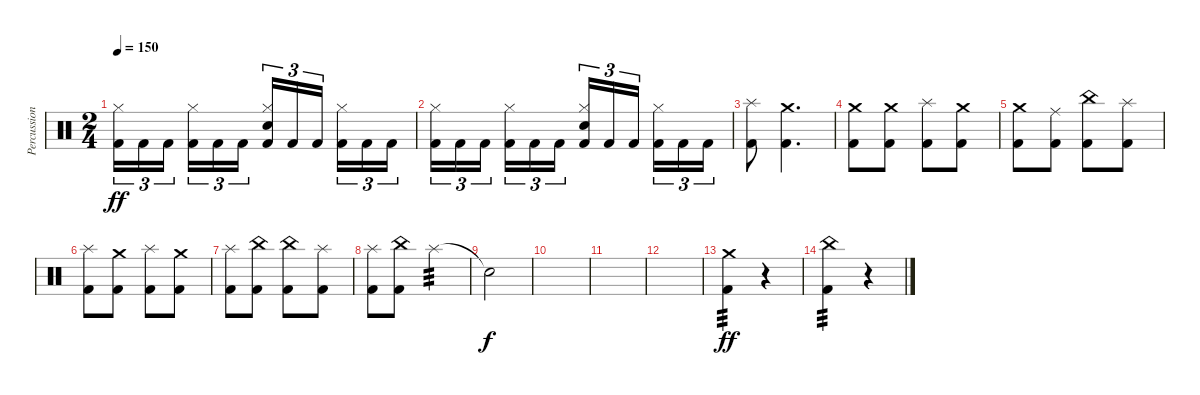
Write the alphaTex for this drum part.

\track ("Percussion" "Percussion") {instrument percussion}
\staff {score}
\articulation defaults
\ts (2 4)
\tempo 150
\clef neutral
\ks c
("Kick (hit) 2" "Hi-Hat (closed)").16{tu (3 2) dy ff} "Kick (hit) 2".16{tu (3 2)} "Kick (hit) 2".16{tu (3 2) beam splitsecondary} ("Kick (hit) 2" "Hi-Hat (closed)").16{tu (3 2)} "Kick (hit) 2".16{tu (3 2)} "Kick (hit) 2".16{tu (3 2)} ("Kick (hit) 2" "Snare (hit) 2" "Hi-Hat (closed)").16{tu (3 2)} "Kick (hit) 2".16{tu (3 2)} "Kick (hit) 2".16{tu (3 2) beam splitsecondary} ("Kick (hit) 2" "Hi-Hat (closed)").16{tu (3 2)} "Kick (hit) 2".16{tu (3 2)} "Kick (hit) 2".16{tu (3 2)} |
("Kick (hit) 2" "Hi-Hat (closed)").16{tu (3 2)} "Kick (hit) 2".16{tu (3 2)} "Kick (hit) 2".16{tu (3 2) beam splitsecondary} ("Kick (hit) 2" "Hi-Hat (closed)").16{tu (3 2)} "Kick (hit) 2".16{tu (3 2)} "Kick (hit) 2".16{tu (3 2)} ("Kick (hit) 2" "Snare (hit) 2" "Hi-Hat (closed)").16{tu (3 2)} "Kick (hit) 2".16{tu (3 2)} "Kick (hit) 2".16{tu (3 2) beam splitsecondary} ("Kick (hit) 2" "Hi-Hat (closed)").16{tu (3 2)} "Kick (hit) 2".16{tu (3 2)} "Kick (hit) 2".16{tu (3 2)} |
("Kick (hit) 2" "Splash (hit)").8 ("Kick (hit) 2" "Crash medium (hit)").4{d} |
("Kick (hit) 2" "Crash medium (hit)").8 ("Kick (hit) 2" "Crash medium (hit)").8 ("Kick (hit) 2" "Splash (hit)").8 ("Kick (hit) 2" "Crash medium (hit)").8 |
("Kick (hit) 2" "Crash medium (hit)").8 ("Kick (hit) 2" "Ride (middle)").8 ("Kick (hit) 2" "China (hit)").8 ("Kick (hit) 2" "Splash (hit)").8 |
("Kick (hit) 2" "Splash (hit)").8 ("Kick (hit) 2" "Crash medium (hit)").8 ("Kick (hit) 2" "Splash (hit)").8 ("Kick (hit) 2" "Crash medium (hit)").8 |
("Kick (hit) 2" "Splash (hit)").8 ("Kick (hit) 2" "China (hit)").8 ("Kick (hit) 2" "China (hit)").8 ("Kick (hit) 2" "Splash (hit)").8 |
("Kick (hit) 2" "Splash (hit)").8 ("Kick (hit) 2" "China (hit)").8 "Splash (hit)".4{tp 3} |
"Snare (hit)"{t}.2{dy f} |
|
|
|
("Crash medium (hit)" "Kick (hit) 2").4{tp 3 dy ff} r.4 |
("China (hit)" "Kick (hit) 2").4{tp 3} r.4
